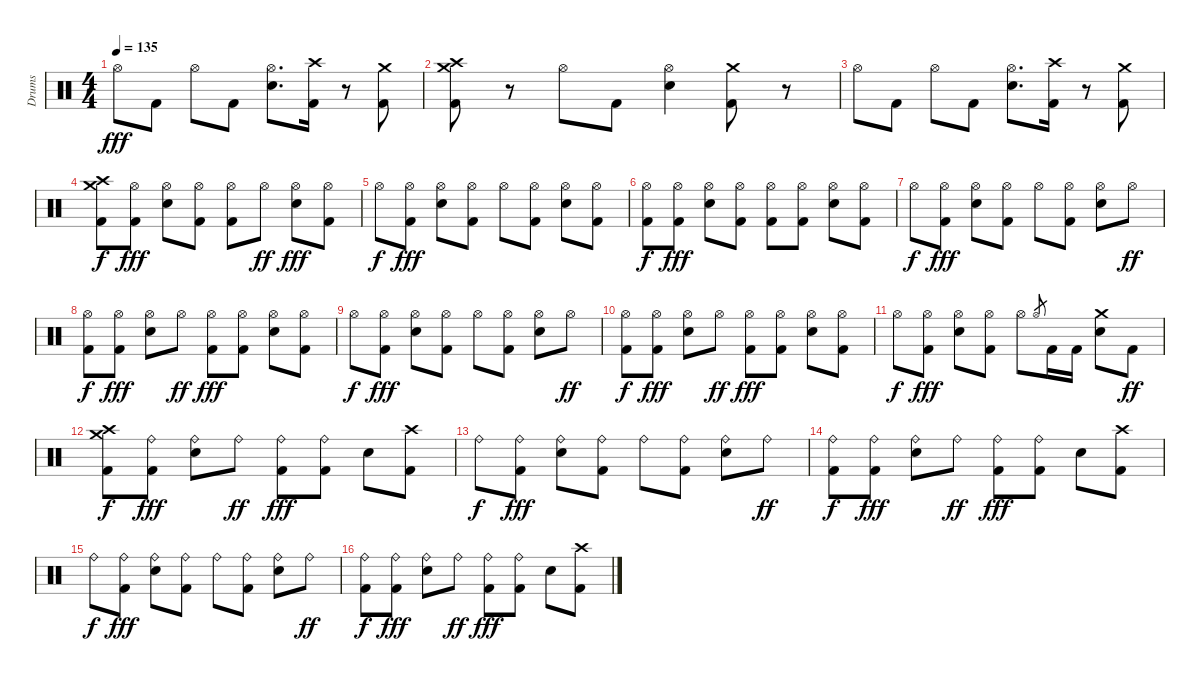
\track ("Drums" "Drums") {instrument percussion}
\staff {score}
\articulation defaults
\ts (4 4)
\tempo 135
\clef neutral
\ks c "Hi-Hat (open)".8{dy fff} "Kick (hit) 2".8 "Hi-Hat (open)".8 "Kick (hit) 2".8
("Hi-Hat (open)" "Snare (hit) 2").8{d} ("Crash high (hit)" "Kick (hit) 2").16 r.8 ("Crash medium (hit)" "Kick (hit) 2").8 |
("Crash medium (hit)" "Crash high (hit)" "Kick (hit) 2").8 r.8 "Hi-Hat (open)".8 "Kick (hit) 2".8 ("Hi-Hat (open)" "Snare (hit) 2").4 ("Crash medium (hit)" "Kick (hit) 2").8 r.8 |
"Hi-Hat (open)".8 "Kick (hit) 2".8 "Hi-Hat (open)".8 "Kick (hit) 2".8 ("Hi-Hat (open)" "Snare (hit) 2").8{d} ("Crash high (hit)" "Kick (hit) 2").16 r.8 ("Crash medium (hit)" "Kick (hit) 2").8 |
("Crash medium (hit)" "Crash high (hit)" "Kick (hit) 2").8{dy f} ("Hi-Hat (open)" "Kick (hit) 2").8{dy fff} ("Hi-Hat (open)" "Snare (hit) 2").8 ("Hi-Hat (open)" "Kick (hit) 2").8 ("Hi-Hat (open)" "Kick (hit) 2").8 "Hi-Hat (open)".8{dy ff} ("Hi-Hat (open)" "Snare (hit) 2").8{dy fff} ("Hi-Hat (open)" "Kick (hit) 2").8 |
"Hi-Hat (open)".8{dy f} ("Hi-Hat (open)" "Kick (hit) 2").8{dy fff} ("Hi-Hat (open)" "Snare (hit) 2").8 ("Hi-Hat (open)" "Kick (hit) 2").8 "Hi-Hat (open)".8 ("Hi-Hat (open)" "Kick (hit) 2").8 ("Hi-Hat (open)" "Snare (hit) 2").8 ("Hi-Hat (open)" "Kick (hit) 2").8 |
("Hi-Hat (open)" "Kick (hit) 2").8{dy f} ("Hi-Hat (open)" "Kick (hit) 2").8{dy fff} ("Hi-Hat (open)" "Snare (hit) 2").8 ("Hi-Hat (open)" "Kick (hit) 2").8 ("Hi-Hat (open)" "Kick (hit) 2").8 ("Hi-Hat (open)" "Kick (hit) 2").8 ("Hi-Hat (open)" "Snare (hit) 2").8 ("Hi-Hat (open)" "Kick (hit) 2").8 |
"Hi-Hat (open)".8{dy f} ("Hi-Hat (open)" "Kick (hit) 2").8{dy fff} ("Hi-Hat (open)" "Snare (hit) 2").8 ("Hi-Hat (open)" "Kick (hit) 2").8 "Hi-Hat (open)".8 ("Hi-Hat (open)" "Kick (hit) 2").8 ("Hi-Hat (open)" "Snare (hit) 2").8 "Hi-Hat (open)".8{dy ff} |
("Hi-Hat (open)" "Kick (hit) 2").8{dy f} ("Hi-Hat (open)" "Kick (hit) 2").8{dy fff} ("Hi-Hat (open)" "Snare (hit) 2").8 "Hi-Hat (open)".8{dy ff} ("Hi-Hat (open)" "Kick (hit) 2").8{dy fff} ("Hi-Hat (open)" "Kick (hit) 2").8 ("Hi-Hat (open)" "Snare (hit) 2").8 ("Hi-Hat (open)" "Kick (hit) 2").8 |
"Hi-Hat (open)".8{dy f} ("Hi-Hat (open)" "Kick (hit) 2").8{dy fff} ("Hi-Hat (open)" "Snare (hit) 2").8 ("Hi-Hat (open)" "Kick (hit) 2").8 "Hi-Hat (open)".8 ("Hi-Hat (open)" "Kick (hit) 2").8 ("Hi-Hat (open)" "Snare (hit) 2").8 "Hi-Hat (open)".8{dy ff} |
("Hi-Hat (open)" "Kick (hit) 2").8{dy f} ("Hi-Hat (open)" "Kick (hit) 2").8{dy fff} ("Hi-Hat (open)" "Snare (hit) 2").8 "Hi-Hat (open)".8{dy ff} ("Hi-Hat (open)" "Kick (hit) 2").8{dy fff} ("Hi-Hat (open)" "Kick (hit) 2").8 ("Hi-Hat (open)" "Snare (hit) 2").8 ("Hi-Hat (open)" "Kick (hit) 2").8 |
"Hi-Hat (open)".8{dy f} ("Hi-Hat (open)" "Kick (hit) 2").8{dy fff} ("Hi-Hat (open)" "Snare (hit) 2").8 ("Hi-Hat (open)" "Kick (hit) 2").8 "Hi-Hat (open)".8 "Hi-Hat (open)".8{gr} "Kick (hit) 2".16 "Kick (hit) 2".16 ("Crash medium (hit)" "Snare (hit) 2").8 "Kick (hit) 2".8{dy ff} |
("Kick (hit) 2" "Crash medium (hit)" "Crash high (hit)").8{dy f} ("Ride (bell)" "Kick (hit) 2").8{dy fff} ("Ride (bell)" "Snare (hit) 2").8 "Ride (bell)".8{dy ff} ("Ride (bell)" "Kick (hit) 2").8{dy fff} ("Ride (bell)" "Kick (hit) 2").8 "Snare (hit) 2".8 ("Crash high (hit)" "Kick (hit) 2").8 |
"Ride (bell)".8{dy f} ("Ride (bell)" "Kick (hit) 2").8{dy fff} ("Ride (bell)" "Snare (hit) 2").8 ("Ride (bell)" "Kick (hit) 2").8 "Ride (bell)".8 ("Ride (bell)" "Kick (hit) 2").8 ("Ride (bell)" "Snare (hit) 2").8 "Ride (bell)".8{dy ff} |
("Ride (bell)" "Kick (hit) 2").8{dy f} ("Ride (bell)" "Kick (hit) 2").8{dy fff} ("Ride (bell)" "Snare (hit) 2").8 "Ride (bell)".8{dy ff} ("Ride (bell)" "Kick (hit) 2").8{dy fff} ("Ride (bell)" "Kick (hit) 2").8 "Snare (hit) 2".8 ("Crash high (hit)" "Kick (hit) 2").8 |
"Ride (bell)".8{dy f} ("Ride (bell)" "Kick (hit) 2").8{dy fff} ("Ride (bell)" "Snare (hit) 2").8 ("Ride (bell)" "Kick (hit) 2").8 "Ride (bell)".8 ("Ride (bell)" "Kick (hit) 2").8 ("Ride (bell)" "Snare (hit) 2").8 "Ride (bell)".8{dy ff} |
("Ride (bell)" "Kick (hit) 2").8{dy f} ("Ride (bell)" "Kick (hit) 2").8{dy fff} ("Ride (bell)" "Snare (hit) 2").8 "Ride (bell)".8{dy ff} ("Ride (bell)" "Kick (hit) 2").8{dy fff} ("Ride (bell)" "Kick (hit) 2").8 "Snare (hit) 2".8 ("Crash high (hit)" "Kick (hit) 2").8
